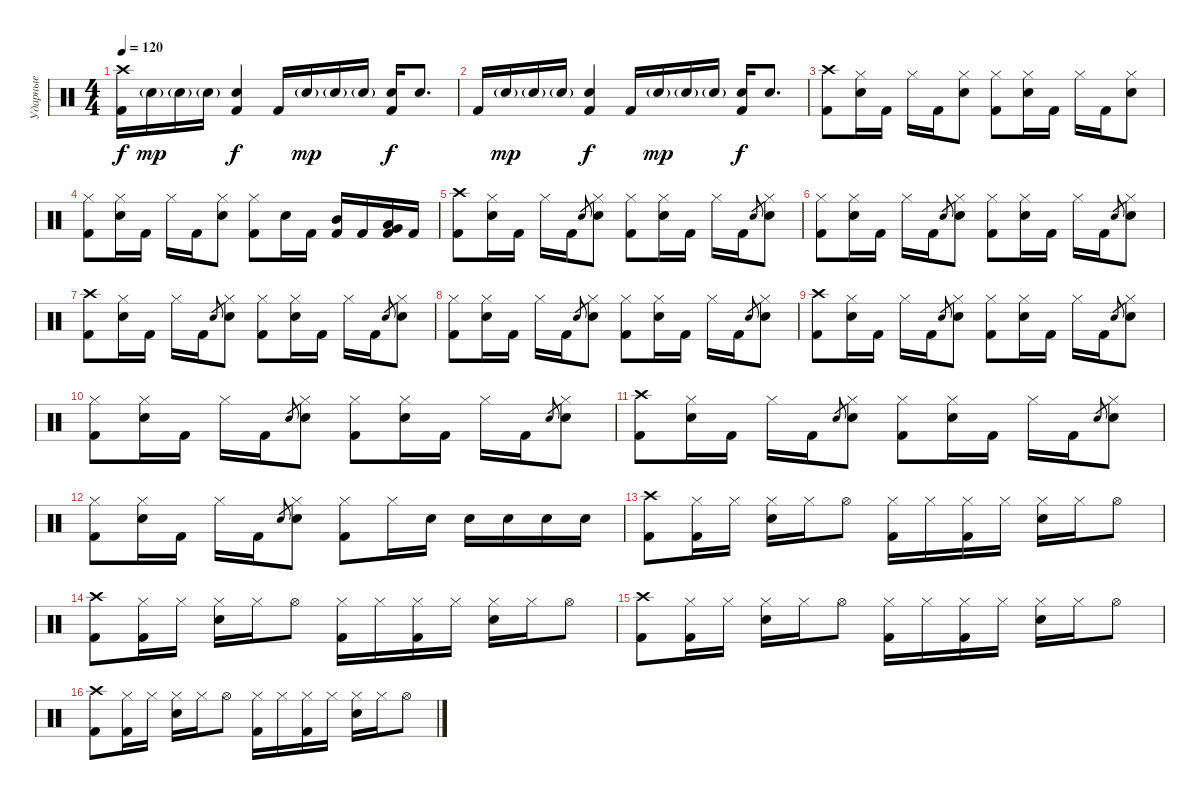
\track ("Ударные" "Ударные") {instrument percussion}
\staff {score}
\articulation defaults
\ts (4 4)
\tempo 120
\clef neutral
\ks c
("Kick (hit) 2" "Crash high (hit)").16{dy f} "Electric Snare (hit)"{g}.16{dy mp} "Electric Snare (hit)"{g}.16 "Electric Snare (hit)"{g}.16 ("Kick (hit) 2" "Electric Snare (hit)").4{dy f} "Kick (hit) 2".16 "Electric Snare (hit)"{g}.16{dy mp} "Electric Snare (hit)"{g}.16 "Electric Snare (hit)"{g}.16 ("Kick (hit) 2" "Electric Snare (hit)").16{dy f} "Electric Snare (hit)".8{d} |
"Kick (hit) 2".16 "Electric Snare (hit)"{g}.16{dy mp} "Electric Snare (hit)"{g}.16 "Electric Snare (hit)"{g}.16 ("Kick (hit) 2" "Electric Snare (hit)").4{dy f} "Kick (hit) 2".16 "Electric Snare (hit)"{g}.16{dy mp} "Electric Snare (hit)"{g}.16 "Electric Snare (hit)"{g}.16 ("Kick (hit) 2" "Electric Snare (hit)").16{dy f} "Electric Snare (hit)".8{d} |
("Kick (hit) 2" "Crash high (hit)").8 ("Electric Snare (hit)" "Hi-Hat (closed)").16 "Kick (hit) 2".16 "Hi-Hat (closed)".16 "Kick (hit) 2".16 ("Electric Snare (hit)" "Hi-Hat (closed)").8 ("Kick (hit) 2" "Hi-Hat (closed)").8 ("Electric Snare (hit)" "Hi-Hat (closed)").16 "Kick (hit) 2".16 "Hi-Hat (closed)".16 "Kick (hit) 2".16 ("Electric Snare (hit)" "Hi-Hat (closed)").8 |
("Kick (hit) 2" "Hi-Hat (closed)").8 ("Electric Snare (hit)" "Hi-Hat (closed)").16 "Kick (hit) 2".16 "Hi-Hat (closed)".16 "Kick (hit) 2".16 ("Electric Snare (hit)" "Hi-Hat (closed)").8 ("Kick (hit) 2" "Hi-Hat (closed)").8 "Electric Snare (hit)".16 "Kick (hit) 2".16 ("Kick (hit) 2" "Mid Tom (hit)").16 "Kick (hit) 2".16 ("Kick (hit) 2" "Very Low Tom (hit)" "Low Tom (hit)").16 "Kick (hit) 2".16 |
("Kick (hit) 2" "Crash high (hit)").8 ("Electric Snare (hit)" "Hi-Hat (closed)").16 "Kick (hit) 2".16 "Hi-Hat (closed)".16 "Kick (hit) 2".16 "Electric Snare (hit)".8{gr} ("Electric Snare (hit)" "Hi-Hat (closed)").8 ("Kick (hit) 2" "Hi-Hat (closed)").8 ("Electric Snare (hit)" "Hi-Hat (closed)").16 "Kick (hit) 2".16 "Hi-Hat (closed)".16 "Kick (hit) 2".16 "Electric Snare (hit)".8{gr} ("Electric Snare (hit)" "Hi-Hat (closed)").8 |
("Kick (hit) 2" "Hi-Hat (closed)").8 ("Electric Snare (hit)" "Hi-Hat (closed)").16 "Kick (hit) 2".16 "Hi-Hat (closed)".16 "Kick (hit) 2".16 "Electric Snare (hit)".8{gr} ("Electric Snare (hit)" "Hi-Hat (closed)").8 ("Kick (hit) 2" "Hi-Hat (closed)").8 ("Electric Snare (hit)" "Hi-Hat (closed)").16 "Kick (hit) 2".16 "Hi-Hat (closed)".16 "Kick (hit) 2".16 "Electric Snare (hit)".8{gr} ("Electric Snare (hit)" "Hi-Hat (closed)").8 |
("Kick (hit) 2" "Crash high (hit)").8 ("Electric Snare (hit)" "Hi-Hat (closed)").16 "Kick (hit) 2".16 "Hi-Hat (closed)".16 "Kick (hit) 2".16 "Electric Snare (hit)".8{gr} ("Electric Snare (hit)" "Hi-Hat (closed)").8 ("Kick (hit) 2" "Hi-Hat (closed)").8 ("Electric Snare (hit)" "Hi-Hat (closed)").16 "Kick (hit) 2".16 "Hi-Hat (closed)".16 "Kick (hit) 2".16 "Electric Snare (hit)".8{gr} ("Electric Snare (hit)" "Hi-Hat (closed)").8 |
("Kick (hit) 2" "Hi-Hat (closed)").8 ("Electric Snare (hit)" "Hi-Hat (closed)").16 "Kick (hit) 2".16 "Hi-Hat (closed)".16 "Kick (hit) 2".16 "Electric Snare (hit)".8{gr} ("Electric Snare (hit)" "Hi-Hat (closed)").8 ("Kick (hit) 2" "Hi-Hat (closed)").8 ("Electric Snare (hit)" "Hi-Hat (closed)").16 "Kick (hit) 2".16 "Hi-Hat (closed)".16 "Kick (hit) 2".16 "Electric Snare (hit)".8{gr} ("Electric Snare (hit)" "Hi-Hat (closed)").8 |
("Kick (hit) 2" "Crash high (hit)").8 ("Electric Snare (hit)" "Hi-Hat (closed)").16 "Kick (hit) 2".16 "Hi-Hat (closed)".16 "Kick (hit) 2".16 "Electric Snare (hit)".8{gr} ("Electric Snare (hit)" "Hi-Hat (closed)").8 ("Kick (hit) 2" "Hi-Hat (closed)").8 ("Electric Snare (hit)" "Hi-Hat (closed)").16 "Kick (hit) 2".16 "Hi-Hat (closed)".16 "Kick (hit) 2".16 "Electric Snare (hit)".8{gr} ("Electric Snare (hit)" "Hi-Hat (closed)").8 |
("Kick (hit) 2" "Hi-Hat (closed)").8 ("Electric Snare (hit)" "Hi-Hat (closed)").16 "Kick (hit) 2".16 "Hi-Hat (closed)".16 "Kick (hit) 2".16 "Electric Snare (hit)".8{gr} ("Electric Snare (hit)" "Hi-Hat (closed)").8 ("Kick (hit) 2" "Hi-Hat (closed)").8 ("Electric Snare (hit)" "Hi-Hat (closed)").16 "Kick (hit) 2".16 "Hi-Hat (closed)".16 "Kick (hit) 2".16 "Electric Snare (hit)".8{gr} ("Electric Snare (hit)" "Hi-Hat (closed)").8 |
("Kick (hit) 2" "Crash high (hit)").8 ("Electric Snare (hit)" "Hi-Hat (closed)").16 "Kick (hit) 2".16 "Hi-Hat (closed)".16 "Kick (hit) 2".16 "Electric Snare (hit)".8{gr} ("Electric Snare (hit)" "Hi-Hat (closed)").8 ("Kick (hit) 2" "Hi-Hat (closed)").8 ("Electric Snare (hit)" "Hi-Hat (closed)").16 "Kick (hit) 2".16 "Hi-Hat (closed)".16 "Kick (hit) 2".16 "Electric Snare (hit)".8{gr} ("Electric Snare (hit)" "Hi-Hat (closed)").8 |
("Kick (hit) 2" "Hi-Hat (closed)").8 ("Electric Snare (hit)" "Hi-Hat (closed)").16 "Kick (hit) 2".16 "Hi-Hat (closed)".16 "Kick (hit) 2".16 "Electric Snare (hit)".8{gr} ("Electric Snare (hit)" "Hi-Hat (closed)").8 ("Kick (hit) 2" "Hi-Hat (closed)").8 "Hi-Hat (closed)".16 "Electric Snare (hit)".16 "Electric Snare (hit)".16 "Electric Snare (hit)".16 "Electric Snare (hit)".16 "Electric Snare (hit)".16 |
("Kick (hit) 2" "Crash high (hit)").8 ("Kick (hit) 2" "Hi-Hat (closed)").16 "Hi-Hat (closed)".16 ("Electric Snare (hit)" "Hi-Hat (closed)").16 "Hi-Hat (closed)".16 "Hi-Hat (open)".8 ("Kick (hit) 2" "Hi-Hat (closed)").16 "Hi-Hat (closed)".16 ("Kick (hit) 2" "Hi-Hat (closed)").16 "Hi-Hat (closed)".16 ("Electric Snare (hit)" "Hi-Hat (closed)").16 "Hi-Hat (closed)".16 "Hi-Hat (open)".8 |
("Kick (hit) 2" "Crash high (hit)").8 ("Kick (hit) 2" "Hi-Hat (closed)").16 "Hi-Hat (closed)".16 ("Electric Snare (hit)" "Hi-Hat (closed)").16 "Hi-Hat (closed)".16 "Hi-Hat (open)".8 ("Kick (hit) 2" "Hi-Hat (closed)").16 "Hi-Hat (closed)".16 ("Kick (hit) 2" "Hi-Hat (closed)").16 "Hi-Hat (closed)".16 ("Electric Snare (hit)" "Hi-Hat (closed)").16 "Hi-Hat (closed)".16 "Hi-Hat (open)".8 |
("Kick (hit) 2" "Crash high (hit)").8 ("Kick (hit) 2" "Hi-Hat (closed)").16 "Hi-Hat (closed)".16 ("Electric Snare (hit)" "Hi-Hat (closed)").16 "Hi-Hat (closed)".16 "Hi-Hat (open)".8 ("Kick (hit) 2" "Hi-Hat (closed)").16 "Hi-Hat (closed)".16 ("Kick (hit) 2" "Hi-Hat (closed)").16 "Hi-Hat (closed)".16 ("Electric Snare (hit)" "Hi-Hat (closed)").16 "Hi-Hat (closed)".16 "Hi-Hat (open)".8 |
("Kick (hit) 2" "Crash high (hit)").8 ("Kick (hit) 2" "Hi-Hat (closed)").16 "Hi-Hat (closed)".16 ("Electric Snare (hit)" "Hi-Hat (closed)").16 "Hi-Hat (closed)".16 "Hi-Hat (open)".8 ("Kick (hit) 2" "Hi-Hat (closed)").16 "Hi-Hat (closed)".16 ("Kick (hit) 2" "Hi-Hat (closed)").16 "Hi-Hat (closed)".16 ("Electric Snare (hit)" "Hi-Hat (closed)").16 "Hi-Hat (closed)".16 "Hi-Hat (open)".8
